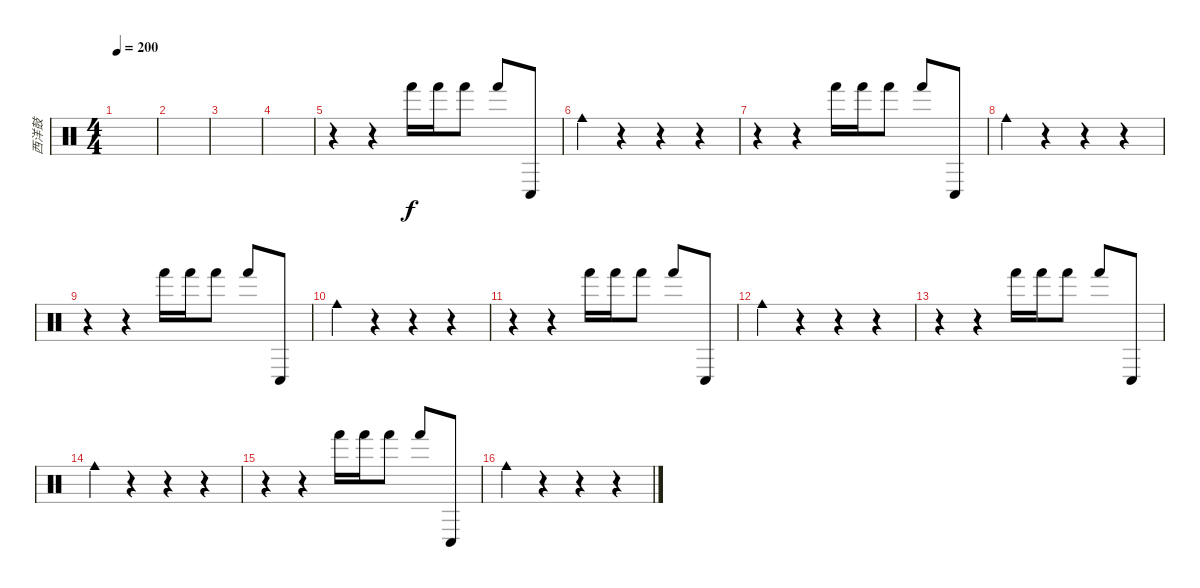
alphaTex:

\track ("西洋鼓" "西洋鼓") {instrument percussion}
\staff {score}
\articulation defaults
\ts (4 4)
\tempo 200
\clef neutral
\ks c
|
|
|
|
r.4 r.4 "Hand (hit)".16 "Hand (hit)".16 "Hand (hit)".8 "Hand (hit)".8 "Conga low (hit)".8 |
"Cowbell medium (hit)".4 r.4 r.4 r.4 |
r.4 r.4 "Hand (hit)".16 "Hand (hit)".16 "Hand (hit)".8 "Hand (hit)".8 "Conga low (hit)".8 |
"Cowbell medium (hit)".4 r.4 r.4 r.4 |
r.4 r.4 "Hand (hit)".16 "Hand (hit)".16 "Hand (hit)".8 "Hand (hit)".8 "Conga low (hit)".8 |
"Cowbell medium (hit)".4 r.4 r.4 r.4 |
r.4 r.4 "Hand (hit)".16 "Hand (hit)".16 "Hand (hit)".8 "Hand (hit)".8 "Conga low (hit)".8 |
"Cowbell medium (hit)".4 r.4 r.4 r.4 |
r.4 r.4 "Hand (hit)".16 "Hand (hit)".16 "Hand (hit)".8 "Hand (hit)".8 "Conga low (hit)".8 |
"Cowbell medium (hit)".4 r.4 r.4 r.4 |
r.4 r.4 "Hand (hit)".16 "Hand (hit)".16 "Hand (hit)".8 "Hand (hit)".8 "Conga low (hit)".8 |
"Cowbell medium (hit)".4 r.4 r.4 r.4
